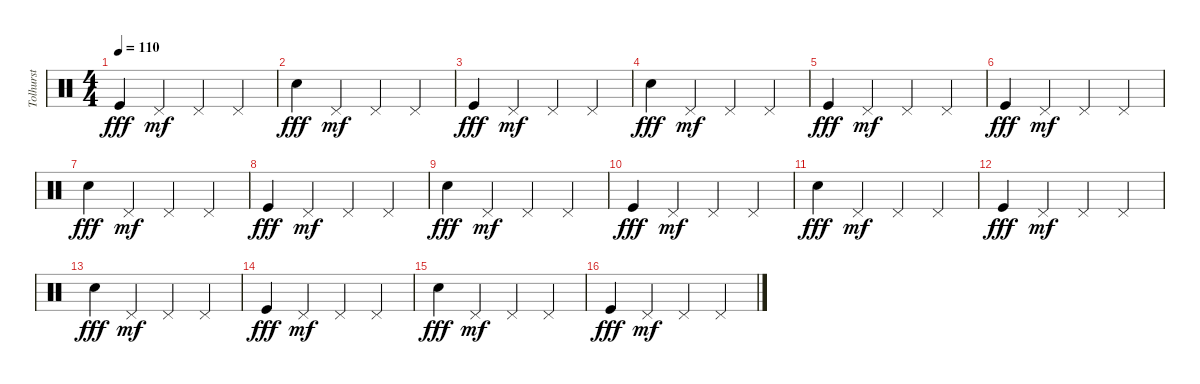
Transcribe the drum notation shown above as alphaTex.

\track ("Tolhurst" "Tolhurst") {instrument percussion}
\staff {score}
\articulation defaults
\ts (4 4)
\tempo 110
\clef neutral
\ks c "Kick (hit)".4{dy fff} "Pedal Hi-Hat (hit)".4{dy mf} "Pedal Hi-Hat (hit)".4 "Pedal Hi-Hat (hit)".4
|
"Electric Snare (hit)".4{dy fff} "Pedal Hi-Hat (hit)".4{dy mf} "Pedal Hi-Hat (hit)".4 "Pedal Hi-Hat (hit)".4 |
"Kick (hit)".4{dy fff} "Pedal Hi-Hat (hit)".4{dy mf} "Pedal Hi-Hat (hit)".4 "Pedal Hi-Hat (hit)".4 |
"Electric Snare (hit)".4{dy fff} "Pedal Hi-Hat (hit)".4{dy mf} "Pedal Hi-Hat (hit)".4 "Pedal Hi-Hat (hit)".4 |
"Kick (hit)".4{dy fff} "Pedal Hi-Hat (hit)".4{dy mf} "Pedal Hi-Hat (hit)".4 "Pedal Hi-Hat (hit)".4 |
"Kick (hit)".4{dy fff} "Pedal Hi-Hat (hit)".4{dy mf} "Pedal Hi-Hat (hit)".4 "Pedal Hi-Hat (hit)".4 |
"Electric Snare (hit)".4{dy fff} "Pedal Hi-Hat (hit)".4{dy mf} "Pedal Hi-Hat (hit)".4 "Pedal Hi-Hat (hit)".4 |
"Kick (hit)".4{dy fff} "Pedal Hi-Hat (hit)".4{dy mf} "Pedal Hi-Hat (hit)".4 "Pedal Hi-Hat (hit)".4 |
"Electric Snare (hit)".4{dy fff} "Pedal Hi-Hat (hit)".4{dy mf} "Pedal Hi-Hat (hit)".4 "Pedal Hi-Hat (hit)".4 |
"Kick (hit)".4{dy fff} "Pedal Hi-Hat (hit)".4{dy mf} "Pedal Hi-Hat (hit)".4 "Pedal Hi-Hat (hit)".4 |
"Electric Snare (hit)".4{dy fff} "Pedal Hi-Hat (hit)".4{dy mf} "Pedal Hi-Hat (hit)".4 "Pedal Hi-Hat (hit)".4 |
"Kick (hit)".4{dy fff} "Pedal Hi-Hat (hit)".4{dy mf} "Pedal Hi-Hat (hit)".4 "Pedal Hi-Hat (hit)".4 |
"Electric Snare (hit)".4{dy fff} "Pedal Hi-Hat (hit)".4{dy mf} "Pedal Hi-Hat (hit)".4 "Pedal Hi-Hat (hit)".4 |
"Kick (hit)".4{dy fff} "Pedal Hi-Hat (hit)".4{dy mf} "Pedal Hi-Hat (hit)".4 "Pedal Hi-Hat (hit)".4 |
"Electric Snare (hit)".4{dy fff} "Pedal Hi-Hat (hit)".4{dy mf} "Pedal Hi-Hat (hit)".4 "Pedal Hi-Hat (hit)".4 |
"Kick (hit)".4{dy fff} "Pedal Hi-Hat (hit)".4{dy mf} "Pedal Hi-Hat (hit)".4 "Pedal Hi-Hat (hit)".4
